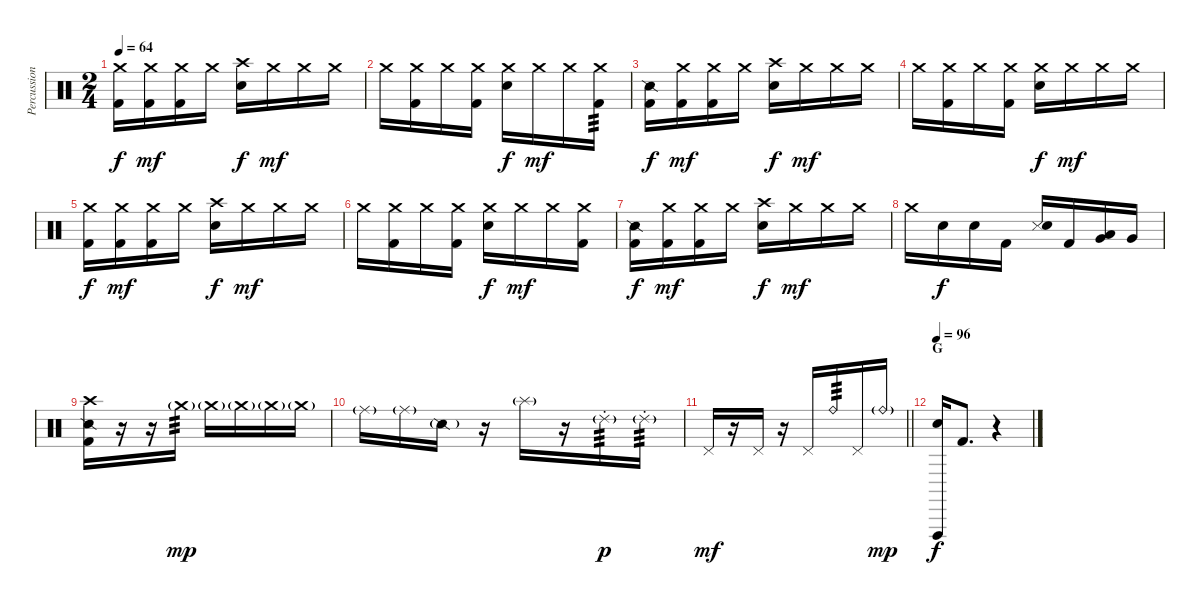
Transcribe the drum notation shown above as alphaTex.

\track ("Percussion" "Percussion") {instrument percussion}
\staff {score}
\articulation defaults
\ts (2 4)
\tempo 64
\clef neutral
\ks c
("Crash medium (hit)" "Kick (hit) 2").16{dy f} ("Crash medium (hit)" "Kick (hit) 2").16{dy mf} ("Crash medium (hit)" "Kick (hit) 2").16 "Crash medium (hit)".16 ("Crash high (hit)" "Snare (hit) 2").16{dy f} "Crash medium (hit)".16{dy mf} "Crash medium (hit)".16 "Crash medium (hit)".16 |
"Crash medium (hit)".16 ("Crash medium (hit)" "Kick (hit) 2").16 "Crash medium (hit)".16 ("Crash medium (hit)" "Kick (hit) 2").16 ("Crash medium (hit)" "Snare (hit) 2").16{dy f} "Crash medium (hit)".16{dy mf} "Crash medium (hit)".16 ("Crash medium (hit)" "Kick (hit) 2").16{tp 3} |
("Snare (side stick) 2" "Kick (hit) 2").16{dy f} ("Crash medium (hit)" "Kick (hit) 2").16{dy mf} ("Crash medium (hit)" "Kick (hit) 2").16 "Crash medium (hit)".16 ("Crash high (hit)" "Snare (hit) 2").16{dy f} "Crash medium (hit)".16{dy mf} "Crash medium (hit)".16 "Crash medium (hit)".16 |
"Crash medium (hit)".16 ("Crash medium (hit)" "Kick (hit) 2").16 "Crash medium (hit)".16 ("Crash medium (hit)" "Kick (hit) 2").16 ("Crash medium (hit)" "Snare (hit) 2").16{dy f} "Crash medium (hit)".16{dy mf} "Crash medium (hit)".16 "Crash medium (hit)".16 |
("Crash medium (hit)" "Kick (hit) 2").16{dy f} ("Crash medium (hit)" "Kick (hit) 2").16{dy mf} ("Crash medium (hit)" "Kick (hit) 2").16 "Crash medium (hit)".16 ("Crash high (hit)" "Snare (hit) 2").16{dy f} "Crash medium (hit)".16{dy mf} "Crash medium (hit)".16 "Crash medium (hit)".16 |
"Crash medium (hit)".16 ("Crash medium (hit)" "Kick (hit) 2").16 "Crash medium (hit)".16 ("Crash medium (hit)" "Kick (hit) 2").16 ("Crash medium (hit)" "Snare (hit) 2").16{dy f} "Crash medium (hit)".16{dy mf} "Crash medium (hit)".16 ("Crash medium (hit)" "Kick (hit) 2").16 |
("Snare (side stick) 2" "Kick (hit) 2").16{dy f} ("Crash medium (hit)" "Kick (hit) 2").16{dy mf} ("Crash medium (hit)" "Kick (hit) 2").16 "Crash medium (hit)".16 ("Crash high (hit)" "Snare (hit) 2").16{dy f} "Crash medium (hit)".16{dy mf} "Crash medium (hit)".16 "Crash medium (hit)".16 |
"Crash medium (hit)".16 "Snare (hit) 2".16{dy f} "Snare (hit) 2".16 "Kick (hit) 2".16 ("Metronome (hit)" "Snare (hit) 2").16{bu 60} "Kick (hit) 2".16 ("Low Tom (hit)" "Very Low Tom (hit)").16{bu 60} "Very Low Tom (hit)".16 |
("Crash high (hit)" "Snare (side stick) 2" "Kick (hit) 2").16 r.16 r.16 "Crash medium (hit)"{g}.16{tp 3 dy mp} "Crash medium (hit)"{g}.16 "Crash medium (hit)"{g}.16 "Crash medium (hit)"{g}.16 "Crash medium (hit)"{g}.16 |
"Ride (middle)"{g}.16 "Ride (middle)"{g}.16 "Snare (side stick) 2"{g}.16 r.16 "Splash (hit)"{g}.16 r.16 "Ride (choke) 2"{g}.16{tp 3 dy p} "Ride (choke) 2"{g}.16{tp 3} |
\barLineRight lightlight "Pedal Hi-Hat (hit)".16{dy mf}
r.16 "Pedal Hi-Hat (hit)".16 r.16 "Pedal Hi-Hat (hit)".16 "Ride (bell)".16{tp 3} "Pedal Hi-Hat (hit)".16 "Ride (bell)"{g}.16{dy mp} |
\section ("" "G")
\tempo 96
("Vibraslap (hit)" "Snare (hit) 2").16{dy f} "Kick (hit) 2".8{d} r.4
